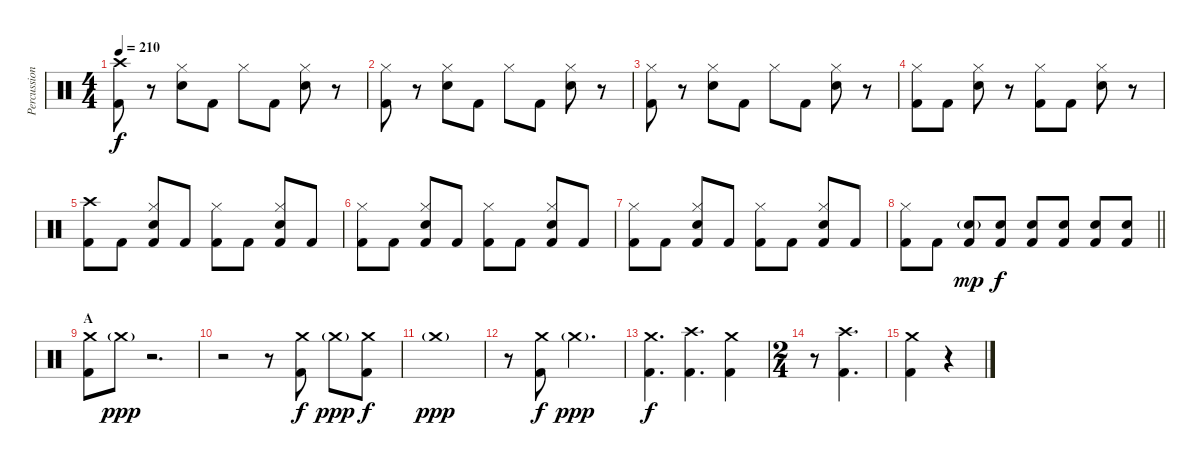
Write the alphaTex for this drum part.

\track ("Percussion" "Percussion") {instrument percussion}
\staff {score}
\articulation defaults
\ts (4 4)
\tempo 210
\clef neutral
\ks c
("Crash high (hit)" "Kick (hit) 2").8{dy f} r.8 ("Hi-Hat (closed)" "Electric Snare (hit)").8 "Kick (hit) 2".8 "Hi-Hat (closed)".8 "Kick (hit) 2".8 ("Hi-Hat (closed)" "Electric Snare (hit)").8 r.8 |
("Hi-Hat (closed)" "Kick (hit) 2").8 r.8 ("Hi-Hat (closed)" "Electric Snare (hit)").8 "Kick (hit) 2".8 "Hi-Hat (closed)".8 "Kick (hit) 2".8 ("Hi-Hat (closed)" "Electric Snare (hit)").8 r.8 |
("Hi-Hat (closed)" "Kick (hit) 2").8 r.8 ("Hi-Hat (closed)" "Electric Snare (hit)").8 "Kick (hit) 2".8 "Hi-Hat (closed)".8 "Kick (hit) 2".8 ("Hi-Hat (closed)" "Electric Snare (hit)").8 r.8 |
("Hi-Hat (closed)" "Kick (hit) 2").8 "Kick (hit) 2".8 ("Hi-Hat (closed)" "Electric Snare (hit)").8 r.8 ("Hi-Hat (closed)" "Kick (hit) 2").8 "Kick (hit) 2".8 ("Hi-Hat (closed)" "Electric Snare (hit)").8 r.8 |
("Crash high (hit)" "Kick (hit) 2").8 "Kick (hit) 2".8 ("Hi-Hat (closed)" "Electric Snare (hit)" "Kick (hit) 2").8 "Kick (hit) 2".8 ("Hi-Hat (closed)" "Kick (hit) 2").8 "Kick (hit) 2".8 ("Hi-Hat (closed)" "Electric Snare (hit)" "Kick (hit) 2").8 "Kick (hit) 2".8 |
("Hi-Hat (closed)" "Kick (hit) 2").8 "Kick (hit) 2".8 ("Hi-Hat (closed)" "Electric Snare (hit)" "Kick (hit) 2").8 "Kick (hit) 2".8 ("Hi-Hat (closed)" "Kick (hit) 2").8 "Kick (hit) 2".8 ("Hi-Hat (closed)" "Electric Snare (hit)" "Kick (hit) 2").8 "Kick (hit) 2".8 |
("Hi-Hat (closed)" "Kick (hit) 2").8 "Kick (hit) 2".8 ("Hi-Hat (closed)" "Electric Snare (hit)" "Kick (hit) 2").8 "Kick (hit) 2".8 ("Hi-Hat (closed)" "Kick (hit) 2").8 "Kick (hit) 2".8 ("Hi-Hat (closed)" "Electric Snare (hit)" "Kick (hit) 2").8 "Kick (hit) 2".8 |
\barLineRight lightlight
("Hi-Hat (closed)" "Kick (hit) 2").8 "Kick (hit) 2".8 ("Electric Snare (hit)"{g} "Kick (hit) 2").8{dy mp} ("Electric Snare (hit)" "Kick (hit) 2").8{dy f} ("Electric Snare (hit)" "Kick (hit) 2").8 ("Electric Snare (hit)" "Kick (hit) 2").8 ("Electric Snare (hit)" "Kick (hit) 2").8 ("Electric Snare (hit)" "Kick (hit) 2").8 |
\section ("" "A")
("Crash medium (hit)" "Kick (hit) 2").8 "Crash medium (hit)"{g}.8{dy ppp} r.2{d} |
r.2 r.8 ("Crash medium (hit)" "Kick (hit) 2").8{dy f} "Crash medium (hit)"{g}.8{dy ppp} ("Crash medium (hit)" "Kick (hit) 2").8{dy f} |
"Crash medium (hit)"{g}.1{dy ppp} |
r.8 ("Crash medium (hit)" "Kick (hit) 2").8{dy f} "Crash medium (hit)"{g}.2{d dy ppp} |
("Crash medium (hit)" "Kick (hit) 2").4{d dy f} ("Crash high (hit)" "Kick (hit) 2").4{d} ("Crash medium (hit)" "Kick (hit) 2").4 |
\ts (2 4)
r.8 ("Crash high (hit)" "Kick (hit) 2").4{d} |
("Crash medium (hit)" "Kick (hit) 2").4 r.4
